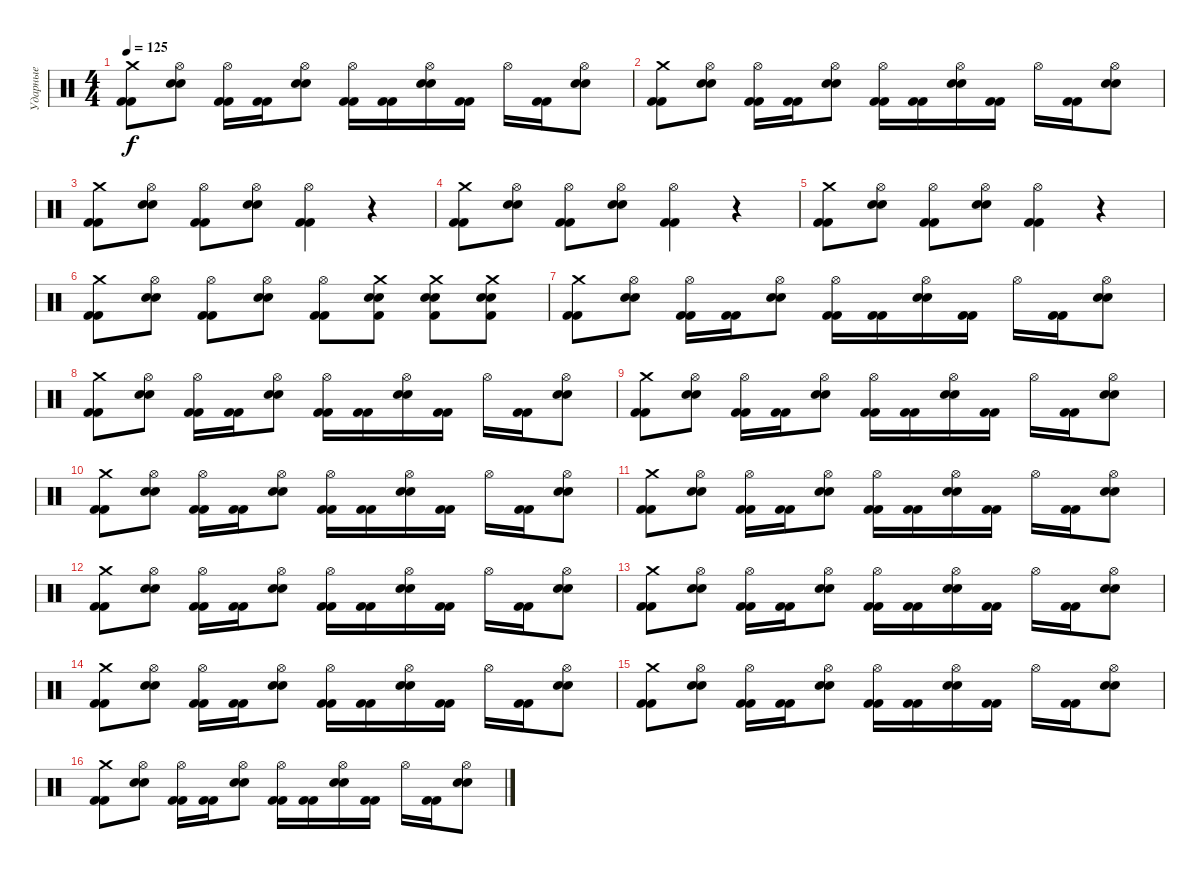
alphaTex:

\track ("Ударные" "Ударные") {instrument percussion}
\staff {score}
\articulation defaults
\ts (4 4)
\tempo 125
\clef neutral
\ks c
("Crash medium (hit)" "Kick (hit) 2" "Kick (hit) 2").8{dy f} ("Hi-Hat (open)" "Electric Snare (hit)" "Electric Snare (hit)").8 ("Hi-Hat (open)" "Kick (hit) 2" "Kick (hit) 2").16 ("Kick (hit) 2" "Kick (hit) 2").16 ("Hi-Hat (open)" "Electric Snare (hit)" "Electric Snare (hit)").8 ("Hi-Hat (open)" "Kick (hit) 2" "Kick (hit) 2").16 ("Kick (hit) 2" "Kick (hit) 2").16 ("Hi-Hat (open)" "Electric Snare (hit)" "Electric Snare (hit)").16 ("Kick (hit) 2" "Kick (hit) 2").16 "Hi-Hat (open)".16 ("Kick (hit) 2" "Kick (hit) 2").16 ("Hi-Hat (open)" "Electric Snare (hit)" "Electric Snare (hit)").8 |
("Crash medium (hit)" "Kick (hit) 2" "Kick (hit) 2").8 ("Hi-Hat (open)" "Electric Snare (hit)" "Electric Snare (hit)").8 ("Hi-Hat (open)" "Kick (hit) 2" "Kick (hit) 2").16 ("Kick (hit) 2" "Kick (hit) 2").16 ("Hi-Hat (open)" "Electric Snare (hit)" "Electric Snare (hit)").8 ("Hi-Hat (open)" "Kick (hit) 2" "Kick (hit) 2").16 ("Kick (hit) 2" "Kick (hit) 2").16 ("Hi-Hat (open)" "Electric Snare (hit)" "Electric Snare (hit)").16 ("Kick (hit) 2" "Kick (hit) 2").16 "Hi-Hat (open)".16 ("Kick (hit) 2" "Kick (hit) 2").16 ("Hi-Hat (open)" "Electric Snare (hit)" "Electric Snare (hit)").8 |
("Crash medium (hit)" "Kick (hit) 2" "Kick (hit) 2").8 ("Hi-Hat (open)" "Electric Snare (hit)" "Electric Snare (hit)").8 ("Hi-Hat (open)" "Kick (hit) 2" "Kick (hit) 2").8 ("Hi-Hat (open)" "Electric Snare (hit)" "Electric Snare (hit)").8 ("Hi-Hat (open)" "Kick (hit) 2" "Kick (hit) 2").4 r.4 |
("Crash medium (hit)" "Kick (hit) 2" "Kick (hit) 2").8 ("Hi-Hat (open)" "Electric Snare (hit)" "Electric Snare (hit)").8 ("Hi-Hat (open)" "Kick (hit) 2" "Kick (hit) 2").8 ("Hi-Hat (open)" "Electric Snare (hit)" "Electric Snare (hit)").8 ("Hi-Hat (open)" "Kick (hit) 2" "Kick (hit) 2").4 r.4 |
("Crash medium (hit)" "Kick (hit) 2" "Kick (hit) 2").8 ("Hi-Hat (open)" "Electric Snare (hit)" "Electric Snare (hit)").8 ("Hi-Hat (open)" "Kick (hit) 2" "Kick (hit) 2").8 ("Hi-Hat (open)" "Electric Snare (hit)" "Electric Snare (hit)").8 ("Hi-Hat (open)" "Kick (hit) 2" "Kick (hit) 2").4 r.4 |
("Crash medium (hit)" "Kick (hit) 2" "Kick (hit) 2").8 ("Hi-Hat (open)" "Electric Snare (hit)" "Electric Snare (hit)").8 ("Hi-Hat (open)" "Kick (hit) 2" "Kick (hit) 2").8 ("Hi-Hat (open)" "Electric Snare (hit)" "Electric Snare (hit)").8 ("Hi-Hat (open)" "Kick (hit) 2" "Kick (hit) 2").8 ("Crash medium (hit)" "Electric Snare (hit)" "Electric Snare (hit)" "Kick (hit) 2").8 ("Crash medium (hit)" "Electric Snare (hit)" "Electric Snare (hit)" "Kick (hit) 2").8 ("Crash medium (hit)" "Electric Snare (hit)" "Electric Snare (hit)" "Kick (hit) 2").8 |
("Crash medium (hit)" "Kick (hit) 2" "Kick (hit) 2").8 ("Hi-Hat (open)" "Electric Snare (hit)" "Electric Snare (hit)").8 ("Hi-Hat (open)" "Kick (hit) 2" "Kick (hit) 2").16 ("Kick (hit) 2" "Kick (hit) 2").16 ("Hi-Hat (open)" "Electric Snare (hit)" "Electric Snare (hit)").8 ("Hi-Hat (open)" "Kick (hit) 2" "Kick (hit) 2").16 ("Kick (hit) 2" "Kick (hit) 2").16 ("Hi-Hat (open)" "Electric Snare (hit)" "Electric Snare (hit)").16 ("Kick (hit) 2" "Kick (hit) 2").16 "Hi-Hat (open)".16 ("Kick (hit) 2" "Kick (hit) 2").16 ("Hi-Hat (open)" "Electric Snare (hit)" "Electric Snare (hit)").8 |
("Crash medium (hit)" "Kick (hit) 2" "Kick (hit) 2").8 ("Hi-Hat (open)" "Electric Snare (hit)" "Electric Snare (hit)").8 ("Hi-Hat (open)" "Kick (hit) 2" "Kick (hit) 2").16 ("Kick (hit) 2" "Kick (hit) 2").16 ("Hi-Hat (open)" "Electric Snare (hit)" "Electric Snare (hit)").8 ("Hi-Hat (open)" "Kick (hit) 2" "Kick (hit) 2").16 ("Kick (hit) 2" "Kick (hit) 2").16 ("Hi-Hat (open)" "Electric Snare (hit)" "Electric Snare (hit)").16 ("Kick (hit) 2" "Kick (hit) 2").16 "Hi-Hat (open)".16 ("Kick (hit) 2" "Kick (hit) 2").16 ("Hi-Hat (open)" "Electric Snare (hit)" "Electric Snare (hit)").8 |
("Crash medium (hit)" "Kick (hit) 2" "Kick (hit) 2").8 ("Hi-Hat (open)" "Electric Snare (hit)" "Electric Snare (hit)").8 ("Hi-Hat (open)" "Kick (hit) 2" "Kick (hit) 2").16 ("Kick (hit) 2" "Kick (hit) 2").16 ("Hi-Hat (open)" "Electric Snare (hit)" "Electric Snare (hit)").8 ("Hi-Hat (open)" "Kick (hit) 2" "Kick (hit) 2").16 ("Kick (hit) 2" "Kick (hit) 2").16 ("Hi-Hat (open)" "Electric Snare (hit)" "Electric Snare (hit)").16 ("Kick (hit) 2" "Kick (hit) 2").16 "Hi-Hat (open)".16 ("Kick (hit) 2" "Kick (hit) 2").16 ("Hi-Hat (open)" "Electric Snare (hit)" "Electric Snare (hit)").8 |
("Crash medium (hit)" "Kick (hit) 2" "Kick (hit) 2").8 ("Hi-Hat (open)" "Electric Snare (hit)" "Electric Snare (hit)").8 ("Hi-Hat (open)" "Kick (hit) 2" "Kick (hit) 2").16 ("Kick (hit) 2" "Kick (hit) 2").16 ("Hi-Hat (open)" "Electric Snare (hit)" "Electric Snare (hit)").8 ("Hi-Hat (open)" "Kick (hit) 2" "Kick (hit) 2").16 ("Kick (hit) 2" "Kick (hit) 2").16 ("Hi-Hat (open)" "Electric Snare (hit)" "Electric Snare (hit)").16 ("Kick (hit) 2" "Kick (hit) 2").16 "Hi-Hat (open)".16 ("Kick (hit) 2" "Kick (hit) 2").16 ("Hi-Hat (open)" "Electric Snare (hit)" "Electric Snare (hit)").8 |
("Crash medium (hit)" "Kick (hit) 2" "Kick (hit) 2").8 ("Hi-Hat (open)" "Electric Snare (hit)" "Electric Snare (hit)").8 ("Hi-Hat (open)" "Kick (hit) 2" "Kick (hit) 2").16 ("Kick (hit) 2" "Kick (hit) 2").16 ("Hi-Hat (open)" "Electric Snare (hit)" "Electric Snare (hit)").8 ("Hi-Hat (open)" "Kick (hit) 2" "Kick (hit) 2").16 ("Kick (hit) 2" "Kick (hit) 2").16 ("Hi-Hat (open)" "Electric Snare (hit)" "Electric Snare (hit)").16 ("Kick (hit) 2" "Kick (hit) 2").16 "Hi-Hat (open)".16 ("Kick (hit) 2" "Kick (hit) 2").16 ("Hi-Hat (open)" "Electric Snare (hit)" "Electric Snare (hit)").8 |
("Crash medium (hit)" "Kick (hit) 2" "Kick (hit) 2").8 ("Hi-Hat (open)" "Electric Snare (hit)" "Electric Snare (hit)").8 ("Hi-Hat (open)" "Kick (hit) 2" "Kick (hit) 2").16 ("Kick (hit) 2" "Kick (hit) 2").16 ("Hi-Hat (open)" "Electric Snare (hit)" "Electric Snare (hit)").8 ("Hi-Hat (open)" "Kick (hit) 2" "Kick (hit) 2").16 ("Kick (hit) 2" "Kick (hit) 2").16 ("Hi-Hat (open)" "Electric Snare (hit)" "Electric Snare (hit)").16 ("Kick (hit) 2" "Kick (hit) 2").16 "Hi-Hat (open)".16 ("Kick (hit) 2" "Kick (hit) 2").16 ("Hi-Hat (open)" "Electric Snare (hit)" "Electric Snare (hit)").8 |
("Crash medium (hit)" "Kick (hit) 2" "Kick (hit) 2").8 ("Hi-Hat (open)" "Electric Snare (hit)" "Electric Snare (hit)").8 ("Hi-Hat (open)" "Kick (hit) 2" "Kick (hit) 2").16 ("Kick (hit) 2" "Kick (hit) 2").16 ("Hi-Hat (open)" "Electric Snare (hit)" "Electric Snare (hit)").8 ("Hi-Hat (open)" "Kick (hit) 2" "Kick (hit) 2").16 ("Kick (hit) 2" "Kick (hit) 2").16 ("Hi-Hat (open)" "Electric Snare (hit)" "Electric Snare (hit)").16 ("Kick (hit) 2" "Kick (hit) 2").16 "Hi-Hat (open)".16 ("Kick (hit) 2" "Kick (hit) 2").16 ("Hi-Hat (open)" "Electric Snare (hit)" "Electric Snare (hit)").8 |
("Crash medium (hit)" "Kick (hit) 2" "Kick (hit) 2").8 ("Hi-Hat (open)" "Electric Snare (hit)" "Electric Snare (hit)").8 ("Hi-Hat (open)" "Kick (hit) 2" "Kick (hit) 2").16 ("Kick (hit) 2" "Kick (hit) 2").16 ("Hi-Hat (open)" "Electric Snare (hit)" "Electric Snare (hit)").8 ("Hi-Hat (open)" "Kick (hit) 2" "Kick (hit) 2").16 ("Kick (hit) 2" "Kick (hit) 2").16 ("Hi-Hat (open)" "Electric Snare (hit)" "Electric Snare (hit)").16 ("Kick (hit) 2" "Kick (hit) 2").16 "Hi-Hat (open)".16 ("Kick (hit) 2" "Kick (hit) 2").16 ("Hi-Hat (open)" "Electric Snare (hit)" "Electric Snare (hit)").8 |
("Crash medium (hit)" "Kick (hit) 2" "Kick (hit) 2").8 ("Hi-Hat (open)" "Electric Snare (hit)" "Electric Snare (hit)").8 ("Hi-Hat (open)" "Kick (hit) 2" "Kick (hit) 2").16 ("Kick (hit) 2" "Kick (hit) 2").16 ("Hi-Hat (open)" "Electric Snare (hit)" "Electric Snare (hit)").8 ("Hi-Hat (open)" "Kick (hit) 2" "Kick (hit) 2").16 ("Kick (hit) 2" "Kick (hit) 2").16 ("Hi-Hat (open)" "Electric Snare (hit)" "Electric Snare (hit)").16 ("Kick (hit) 2" "Kick (hit) 2").16 "Hi-Hat (open)".16 ("Kick (hit) 2" "Kick (hit) 2").16 ("Hi-Hat (open)" "Electric Snare (hit)" "Electric Snare (hit)").8 |
("Crash medium (hit)" "Kick (hit) 2" "Kick (hit) 2").8 ("Hi-Hat (open)" "Electric Snare (hit)" "Electric Snare (hit)").8 ("Hi-Hat (open)" "Kick (hit) 2" "Kick (hit) 2").16 ("Kick (hit) 2" "Kick (hit) 2").16 ("Hi-Hat (open)" "Electric Snare (hit)" "Electric Snare (hit)").8 ("Hi-Hat (open)" "Kick (hit) 2" "Kick (hit) 2").16 ("Kick (hit) 2" "Kick (hit) 2").16 ("Hi-Hat (open)" "Electric Snare (hit)" "Electric Snare (hit)").16 ("Kick (hit) 2" "Kick (hit) 2").16 "Hi-Hat (open)".16 ("Kick (hit) 2" "Kick (hit) 2").16 ("Hi-Hat (open)" "Electric Snare (hit)" "Electric Snare (hit)").8
